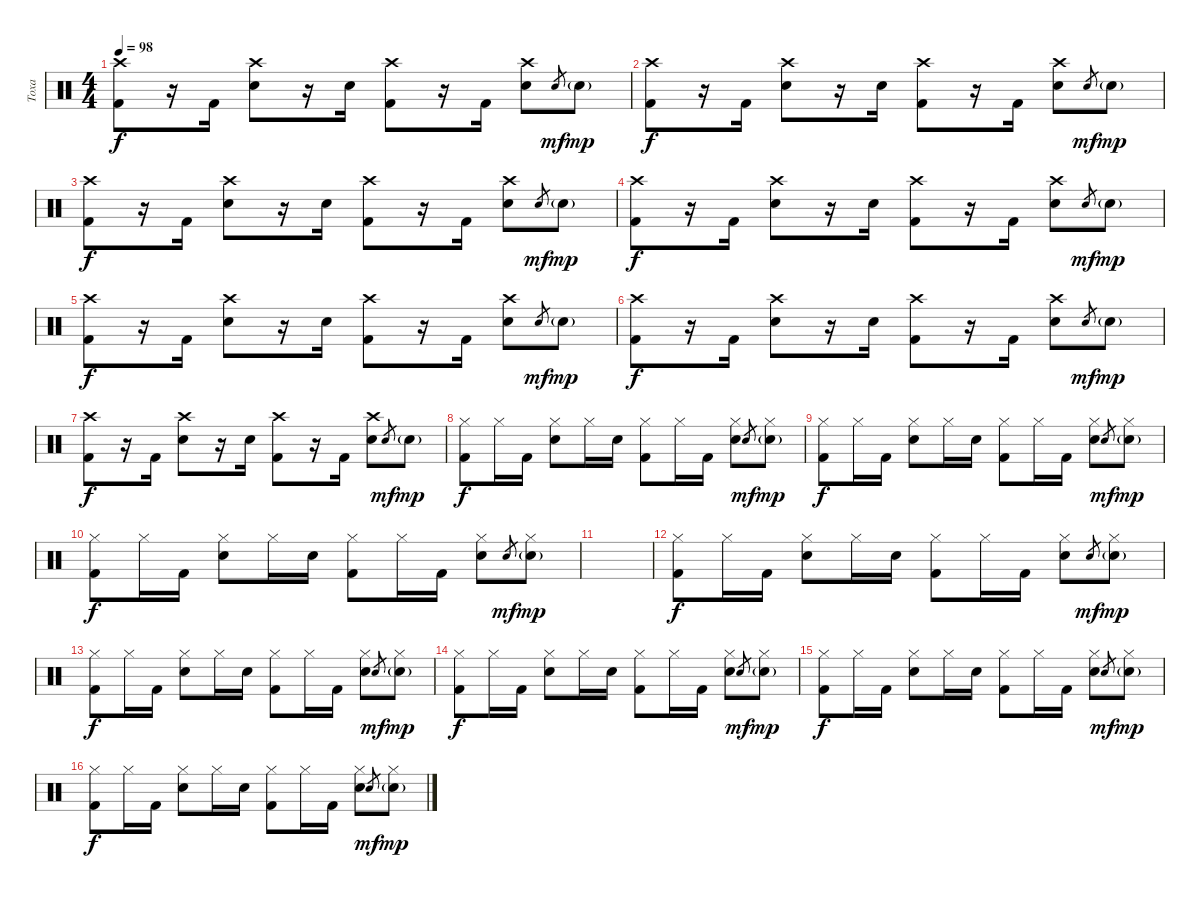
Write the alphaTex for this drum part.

\track ("Toxa" "Toxa") {instrument percussion}
\staff {score}
\articulation defaults
\ts (4 4)
\tempo 98
\clef neutral
\ks c
("Crash high (hit)" "Kick (hit) 2").8{dy f} r.16 "Kick (hit) 2".16 ("Crash high (hit)" "Electric Snare (hit)").8 r.16 "Electric Snare (hit)".16 ("Crash high (hit)" "Kick (hit) 2").8 r.16 "Kick (hit) 2".16 ("Crash high (hit)" "Electric Snare (hit)").8 "Electric Snare (hit)".8{gr dy mf} "Electric Snare (hit)"{g}.8{dy mp} |
("Crash high (hit)" "Kick (hit) 2").8{dy f} r.16 "Kick (hit) 2".16 ("Crash high (hit)" "Electric Snare (hit)").8 r.16 "Electric Snare (hit)".16 ("Crash high (hit)" "Kick (hit) 2").8 r.16 "Kick (hit) 2".16 ("Crash high (hit)" "Electric Snare (hit)").8 "Electric Snare (hit)".8{gr dy mf} "Electric Snare (hit)"{g}.8{dy mp} |
("Crash high (hit)" "Kick (hit) 2").8{dy f} r.16 "Kick (hit) 2".16 ("Crash high (hit)" "Electric Snare (hit)").8 r.16 "Electric Snare (hit)".16 ("Crash high (hit)" "Kick (hit) 2").8 r.16 "Kick (hit) 2".16 ("Crash high (hit)" "Electric Snare (hit)").8 "Electric Snare (hit)".8{gr dy mf} "Electric Snare (hit)"{g}.8{dy mp} |
("Crash high (hit)" "Kick (hit) 2").8{dy f} r.16 "Kick (hit) 2".16 ("Crash high (hit)" "Electric Snare (hit)").8 r.16 "Electric Snare (hit)".16 ("Crash high (hit)" "Kick (hit) 2").8 r.16 "Kick (hit) 2".16 ("Crash high (hit)" "Electric Snare (hit)").8 "Electric Snare (hit)".8{gr dy mf} "Electric Snare (hit)"{g}.8{dy mp} |
("Crash high (hit)" "Kick (hit) 2").8{dy f} r.16 "Kick (hit) 2".16 ("Crash high (hit)" "Electric Snare (hit)").8 r.16 "Electric Snare (hit)".16 ("Crash high (hit)" "Kick (hit) 2").8 r.16 "Kick (hit) 2".16 ("Crash high (hit)" "Electric Snare (hit)").8 "Electric Snare (hit)".8{gr dy mf} "Electric Snare (hit)"{g}.8{dy mp} |
("Crash high (hit)" "Kick (hit) 2").8{dy f} r.16 "Kick (hit) 2".16 ("Crash high (hit)" "Electric Snare (hit)").8 r.16 "Electric Snare (hit)".16 ("Crash high (hit)" "Kick (hit) 2").8 r.16 "Kick (hit) 2".16 ("Crash high (hit)" "Electric Snare (hit)").8 "Electric Snare (hit)".8{gr dy mf} "Electric Snare (hit)"{g}.8{dy mp} |
("Crash high (hit)" "Kick (hit) 2").8{dy f} r.16 "Kick (hit) 2".16 ("Crash high (hit)" "Electric Snare (hit)").8 r.16 "Electric Snare (hit)".16 ("Crash high (hit)" "Kick (hit) 2").8 r.16 "Kick (hit) 2".16 ("Crash high (hit)" "Electric Snare (hit)").8 "Electric Snare (hit)".8{gr dy mf} "Electric Snare (hit)"{g}.8{dy mp} |
("Hi-Hat (closed)" "Kick (hit) 2").8{dy f} "Hi-Hat (closed)".16 "Kick (hit) 2".16 ("Hi-Hat (closed)" "Electric Snare (hit)").8 "Hi-Hat (closed)".16 "Electric Snare (hit)".16 ("Hi-Hat (closed)" "Kick (hit) 2").8 "Hi-Hat (closed)".16 "Kick (hit) 2".16 ("Hi-Hat (closed)" "Electric Snare (hit)").8 "Electric Snare (hit)".8{gr dy mf} ("Hi-Hat (closed)" "Electric Snare (hit)"{g}).8{dy mp} |
("Hi-Hat (closed)" "Kick (hit) 2").8{dy f} "Hi-Hat (closed)".16 "Kick (hit) 2".16 ("Hi-Hat (closed)" "Electric Snare (hit)").8 "Hi-Hat (closed)".16 "Electric Snare (hit)".16 ("Hi-Hat (closed)" "Kick (hit) 2").8 "Hi-Hat (closed)".16 "Kick (hit) 2".16 ("Hi-Hat (closed)" "Electric Snare (hit)").8 "Electric Snare (hit)".8{gr dy mf} ("Hi-Hat (closed)" "Electric Snare (hit)"{g}).8{dy mp} |
("Hi-Hat (closed)" "Kick (hit) 2").8{dy f} "Hi-Hat (closed)".16 "Kick (hit) 2".16 ("Hi-Hat (closed)" "Electric Snare (hit)").8 "Hi-Hat (closed)".16 "Electric Snare (hit)".16 ("Hi-Hat (closed)" "Kick (hit) 2").8 "Hi-Hat (closed)".16 "Kick (hit) 2".16 ("Hi-Hat (closed)" "Electric Snare (hit)").8 "Electric Snare (hit)".8{gr dy mf} ("Hi-Hat (closed)" "Electric Snare (hit)"{g}).8{dy mp} |
|
("Hi-Hat (closed)" "Kick (hit) 2").8{dy f} "Hi-Hat (closed)".16 "Kick (hit) 2".16 ("Hi-Hat (closed)" "Electric Snare (hit)").8 "Hi-Hat (closed)".16 "Electric Snare (hit)".16 ("Hi-Hat (closed)" "Kick (hit) 2").8 "Hi-Hat (closed)".16 "Kick (hit) 2".16 ("Hi-Hat (closed)" "Electric Snare (hit)").8 "Electric Snare (hit)".8{gr dy mf} ("Hi-Hat (closed)" "Electric Snare (hit)"{g}).8{dy mp} |
("Hi-Hat (closed)" "Kick (hit) 2").8{dy f} "Hi-Hat (closed)".16 "Kick (hit) 2".16 ("Hi-Hat (closed)" "Electric Snare (hit)").8 "Hi-Hat (closed)".16 "Electric Snare (hit)".16 ("Hi-Hat (closed)" "Kick (hit) 2").8 "Hi-Hat (closed)".16 "Kick (hit) 2".16 ("Hi-Hat (closed)" "Electric Snare (hit)").8 "Electric Snare (hit)".8{gr dy mf} ("Hi-Hat (closed)" "Electric Snare (hit)"{g}).8{dy mp} |
("Hi-Hat (closed)" "Kick (hit) 2").8{dy f} "Hi-Hat (closed)".16 "Kick (hit) 2".16 ("Hi-Hat (closed)" "Electric Snare (hit)").8 "Hi-Hat (closed)".16 "Electric Snare (hit)".16 ("Hi-Hat (closed)" "Kick (hit) 2").8 "Hi-Hat (closed)".16 "Kick (hit) 2".16 ("Hi-Hat (closed)" "Electric Snare (hit)").8 "Electric Snare (hit)".8{gr dy mf} ("Hi-Hat (closed)" "Electric Snare (hit)"{g}).8{dy mp} |
("Hi-Hat (closed)" "Kick (hit) 2").8{dy f} "Hi-Hat (closed)".16 "Kick (hit) 2".16 ("Hi-Hat (closed)" "Electric Snare (hit)").8 "Hi-Hat (closed)".16 "Electric Snare (hit)".16 ("Hi-Hat (closed)" "Kick (hit) 2").8 "Hi-Hat (closed)".16 "Kick (hit) 2".16 ("Hi-Hat (closed)" "Electric Snare (hit)").8 "Electric Snare (hit)".8{gr dy mf} ("Hi-Hat (closed)" "Electric Snare (hit)"{g}).8{dy mp} |
("Hi-Hat (closed)" "Kick (hit) 2").8{dy f} "Hi-Hat (closed)".16 "Kick (hit) 2".16 ("Hi-Hat (closed)" "Electric Snare (hit)").8 "Hi-Hat (closed)".16 "Electric Snare (hit)".16 ("Hi-Hat (closed)" "Kick (hit) 2").8 "Hi-Hat (closed)".16 "Kick (hit) 2".16 ("Hi-Hat (closed)" "Electric Snare (hit)").8 "Electric Snare (hit)".8{gr dy mf} ("Hi-Hat (closed)" "Electric Snare (hit)"{g}).8{dy mp}
